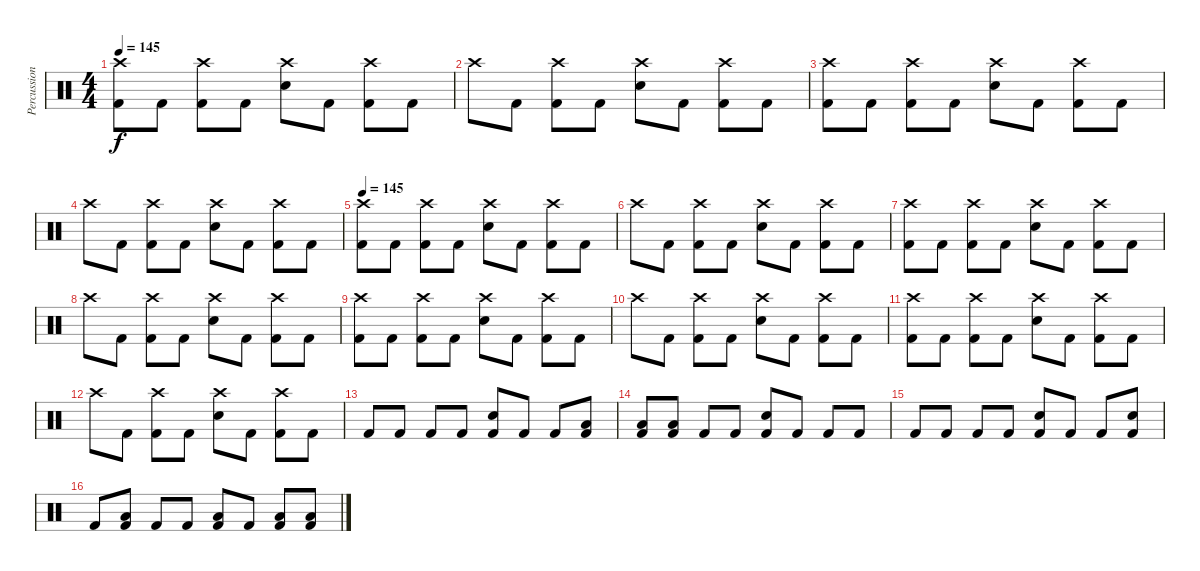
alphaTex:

\track ("Percussion" "Percussion") {instrument percussion}
\staff {score}
\articulation defaults
\ts (4 4)
\tempo 145
\clef neutral
\ks c
("Crash high (hit)" "Kick (hit) 2").8{dy f} "Kick (hit) 2".8 ("Crash high (hit)" "Kick (hit) 2").8 "Kick (hit) 2".8 ("Crash high (hit)" "Snare (hit) 2").8 "Kick (hit) 2".8 ("Crash high (hit)" "Kick (hit) 2").8 "Kick (hit) 2".8 |
"Crash high (hit)".8 "Kick (hit) 2".8 ("Crash high (hit)" "Kick (hit) 2").8 "Kick (hit) 2".8 ("Crash high (hit)" "Snare (hit) 2").8 "Kick (hit) 2".8 ("Crash high (hit)" "Kick (hit) 2").8 "Kick (hit) 2".8 |
("Crash high (hit)" "Kick (hit) 2").8 "Kick (hit) 2".8 ("Crash high (hit)" "Kick (hit) 2").8 "Kick (hit) 2".8 ("Crash high (hit)" "Snare (hit) 2").8 "Kick (hit) 2".8 ("Crash high (hit)" "Kick (hit) 2").8 "Kick (hit) 2".8 |
"Crash high (hit)".8 "Kick (hit) 2".8 ("Crash high (hit)" "Kick (hit) 2").8 "Kick (hit) 2".8 ("Crash high (hit)" "Snare (hit) 2").8 "Kick (hit) 2".8 ("Crash high (hit)" "Kick (hit) 2").8 "Kick (hit) 2".8 |
\tempo 145
("Crash high (hit)" "Kick (hit) 2").8 "Kick (hit) 2".8 ("Crash high (hit)" "Kick (hit) 2").8 "Kick (hit) 2".8 ("Crash high (hit)" "Snare (hit) 2").8 "Kick (hit) 2".8 ("Crash high (hit)" "Kick (hit) 2").8 "Kick (hit) 2".8 |
"Crash high (hit)".8 "Kick (hit) 2".8 ("Crash high (hit)" "Kick (hit) 2").8 "Kick (hit) 2".8 ("Crash high (hit)" "Snare (hit) 2").8 "Kick (hit) 2".8 ("Crash high (hit)" "Kick (hit) 2").8 "Kick (hit) 2".8 |
("Crash high (hit)" "Kick (hit) 2").8 "Kick (hit) 2".8 ("Crash high (hit)" "Kick (hit) 2").8 "Kick (hit) 2".8 ("Crash high (hit)" "Snare (hit) 2").8 "Kick (hit) 2".8 ("Crash high (hit)" "Kick (hit) 2").8 "Kick (hit) 2".8 |
"Crash high (hit)".8 "Kick (hit) 2".8 ("Crash high (hit)" "Kick (hit) 2").8 "Kick (hit) 2".8 ("Crash high (hit)" "Snare (hit) 2").8 "Kick (hit) 2".8 ("Crash high (hit)" "Kick (hit) 2").8 "Kick (hit) 2".8 |
("Crash high (hit)" "Kick (hit) 2").8 "Kick (hit) 2".8 ("Crash high (hit)" "Kick (hit) 2").8 "Kick (hit) 2".8 ("Crash high (hit)" "Snare (hit) 2").8 "Kick (hit) 2".8 ("Crash high (hit)" "Kick (hit) 2").8 "Kick (hit) 2".8 |
"Crash high (hit)".8 "Kick (hit) 2".8 ("Crash high (hit)" "Kick (hit) 2").8 "Kick (hit) 2".8 ("Crash high (hit)" "Snare (hit) 2").8 "Kick (hit) 2".8 ("Crash high (hit)" "Kick (hit) 2").8 "Kick (hit) 2".8 |
("Crash high (hit)" "Kick (hit) 2").8 "Kick (hit) 2".8 ("Crash high (hit)" "Kick (hit) 2").8 "Kick (hit) 2".8 ("Crash high (hit)" "Snare (hit) 2").8 "Kick (hit) 2".8 ("Crash high (hit)" "Kick (hit) 2").8 "Kick (hit) 2".8 |
"Crash high (hit)".8 "Kick (hit) 2".8 ("Crash high (hit)" "Kick (hit) 2").8 "Kick (hit) 2".8 ("Crash high (hit)" "Snare (hit) 2").8 "Kick (hit) 2".8 ("Crash high (hit)" "Kick (hit) 2").8 "Kick (hit) 2".8 |
"Kick (hit) 2".8 "Kick (hit) 2".8 "Kick (hit) 2".8 "Kick (hit) 2".8 ("Snare (hit) 2" "Kick (hit) 2").8 "Kick (hit) 2".8 "Kick (hit) 2".8 ("Low Tom (hit)" "Kick (hit) 2").8 |
("Low Tom (hit)" "Kick (hit) 2").8 ("Low Tom (hit)" "Kick (hit) 2").8 "Kick (hit) 2".8 "Kick (hit) 2".8 ("Snare (hit) 2" "Kick (hit) 2").8 "Kick (hit) 2".8 "Kick (hit) 2".8 "Kick (hit) 2".8 |
"Kick (hit) 2".8 "Kick (hit) 2".8 "Kick (hit) 2".8 "Kick (hit) 2".8 ("Snare (hit) 2" "Kick (hit) 2").8 "Kick (hit) 2".8 "Kick (hit) 2".8 ("Snare (hit) 2" "Kick (hit) 2").8 |
"Kick (hit) 2".8 ("Low Tom (hit)" "Kick (hit) 2").8 "Kick (hit) 2".8 "Kick (hit) 2".8 ("Low Tom (hit)" "Kick (hit) 2").8 "Kick (hit) 2".8 ("Low Tom (hit)" "Kick (hit) 2").8 ("Low Tom (hit)" "Kick (hit) 2").8
